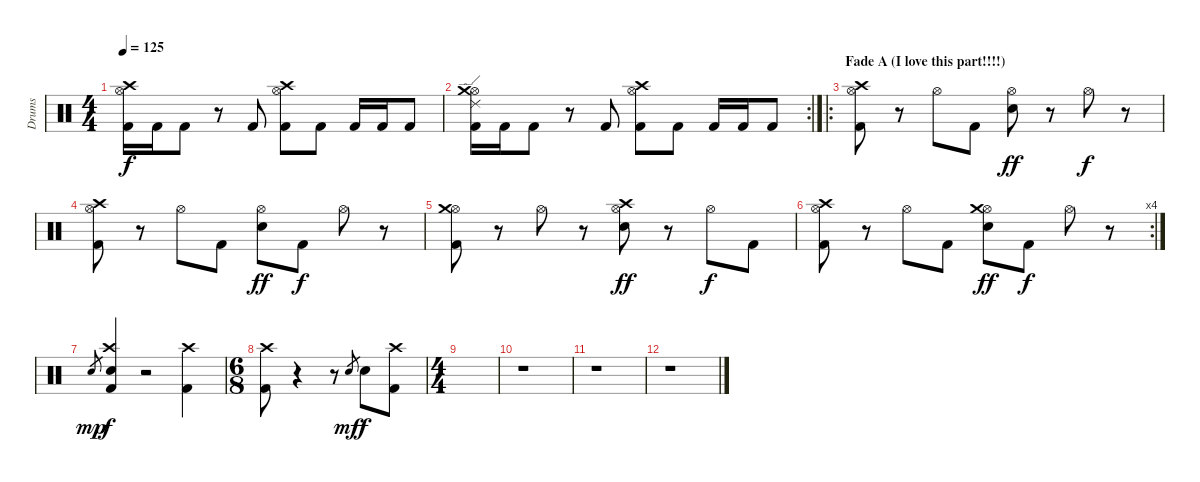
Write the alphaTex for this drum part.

\track ("Drums" "Drums") {instrument percussion}
\staff {score}
\articulation defaults
\ts (4 4)
\tempo 125
\clef neutral
\ks c
("Kick (hit) 2" "Hi-Hat (open)" "Crash high (hit)").16{dy f} "Kick (hit) 2".16 "Kick (hit) 2".8 r.8 "Kick (hit) 2".8 ("Kick (hit) 2" "Hi-Hat (open)" "Crash high (hit)").8 "Kick (hit) 2".8 "Kick (hit) 2".16 "Kick (hit) 2".16 "Kick (hit) 2".8 |
\rc 2
("Kick (hit) 2" "Hi-Hat (open)" "Ride (edge) 2" "Crash medium (hit)").16 "Kick (hit) 2".16 "Kick (hit) 2".8 r.8 "Kick (hit) 2".8 ("Kick (hit) 2" "Hi-Hat (open)" "Crash high (hit)").8 "Kick (hit) 2".8 "Kick (hit) 2".16 "Kick (hit) 2".16 "Kick (hit) 2".8 |
\ro
\section ("" "Fade A (I love this part!!!!)")
("Kick (hit) 2" "Hi-Hat (open)" "Crash high (hit)").8 r.8 "Hi-Hat (open)".8 "Kick (hit) 2".8 ("Hi-Hat (open)" "Electric Snare (hit)").8{dy ff} r.8 "Hi-Hat (open)".8{dy f} r.8 |
("Kick (hit) 2" "Hi-Hat (open)" "Crash high (hit)").8 r.8 "Hi-Hat (open)".8 "Kick (hit) 2".8 ("Hi-Hat (open)" "Electric Snare (hit)").8{dy ff} "Kick (hit) 2".8{dy f} "Hi-Hat (open)".8 r.8 |
("Kick (hit) 2" "Hi-Hat (open)" "Crash medium (hit)").8 r.8 "Hi-Hat (open)".8 r.8 ("Hi-Hat (open)" "Electric Snare (hit)" "Crash high (hit)").8{dy ff} r.8 "Hi-Hat (open)".8{dy f} "Kick (hit) 2".8 |
\rc 4
("Kick (hit) 2" "Hi-Hat (open)" "Crash high (hit)").8 r.8 "Hi-Hat (open)".8 "Kick (hit) 2".8 ("Hi-Hat (open)" "Electric Snare (hit)" "Crash medium (hit)").8{dy ff} "Kick (hit) 2".8{dy f} "Hi-Hat (open)".8 r.8 |
"Snare (hit) 2".8{gr dy mp} ("Kick (hit) 2" "Electric Snare (hit)" "Crash high (hit)").4{dy f} r.2 ("Crash high (hit)" "Kick (hit) 2").4 |
\ts (6 8)
("Crash high (hit)" "Kick (hit) 2").8 r.4 r.8 "Snare (hit) 2".8{gr dy mf} "Electric Snare (hit)".8{dy f} ("Crash high (hit)" "Kick (hit) 2").8 |
\ts (4 4)
|
r.1 |
r.1 |
r.1
